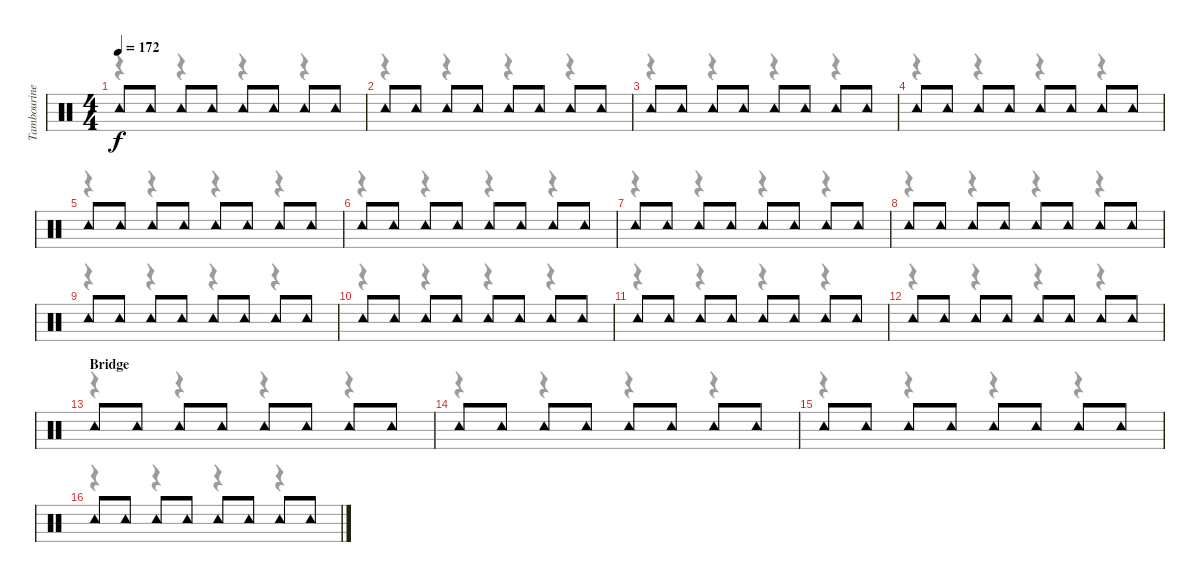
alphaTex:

\track ("Tambourine" "Tambourine") {instrument percussion}
\staff {score}
\articulation defaults
\voice
\ts (4 4)
\tempo 172
\clef neutral
\ks c "Tambourine (hit)".8{dy f} "Tambourine (hit)".8 "Tambourine (hit)".8 "Tambourine (hit)".8 "Tambourine (hit)".8 "Tambourine (hit)".8 "Tambourine (hit)".8 "Tambourine (hit)".8
|
"Tambourine (hit)".8 "Tambourine (hit)".8 "Tambourine (hit)".8 "Tambourine (hit)".8 "Tambourine (hit)".8 "Tambourine (hit)".8 "Tambourine (hit)".8 "Tambourine (hit)".8 |
"Tambourine (hit)".8 "Tambourine (hit)".8 "Tambourine (hit)".8 "Tambourine (hit)".8 "Tambourine (hit)".8 "Tambourine (hit)".8 "Tambourine (hit)".8 "Tambourine (hit)".8 |
"Tambourine (hit)".8 "Tambourine (hit)".8 "Tambourine (hit)".8 "Tambourine (hit)".8 "Tambourine (hit)".8 "Tambourine (hit)".8 "Tambourine (hit)".8 "Tambourine (hit)".8 |
"Tambourine (hit)".8 "Tambourine (hit)".8 "Tambourine (hit)".8 "Tambourine (hit)".8 "Tambourine (hit)".8 "Tambourine (hit)".8 "Tambourine (hit)".8 "Tambourine (hit)".8 |
"Tambourine (hit)".8 "Tambourine (hit)".8 "Tambourine (hit)".8 "Tambourine (hit)".8 "Tambourine (hit)".8 "Tambourine (hit)".8 "Tambourine (hit)".8 "Tambourine (hit)".8 |
"Tambourine (hit)".8 "Tambourine (hit)".8 "Tambourine (hit)".8 "Tambourine (hit)".8 "Tambourine (hit)".8 "Tambourine (hit)".8 "Tambourine (hit)".8 "Tambourine (hit)".8 |
"Tambourine (hit)".8 "Tambourine (hit)".8 "Tambourine (hit)".8 "Tambourine (hit)".8 "Tambourine (hit)".8 "Tambourine (hit)".8 "Tambourine (hit)".8 "Tambourine (hit)".8 |
"Tambourine (hit)".8 "Tambourine (hit)".8 "Tambourine (hit)".8 "Tambourine (hit)".8 "Tambourine (hit)".8 "Tambourine (hit)".8 "Tambourine (hit)".8 "Tambourine (hit)".8 |
"Tambourine (hit)".8 "Tambourine (hit)".8 "Tambourine (hit)".8 "Tambourine (hit)".8 "Tambourine (hit)".8 "Tambourine (hit)".8 "Tambourine (hit)".8 "Tambourine (hit)".8 |
"Tambourine (hit)".8 "Tambourine (hit)".8 "Tambourine (hit)".8 "Tambourine (hit)".8 "Tambourine (hit)".8 "Tambourine (hit)".8 "Tambourine (hit)".8 "Tambourine (hit)".8 |
"Tambourine (hit)".8 "Tambourine (hit)".8 "Tambourine (hit)".8 "Tambourine (hit)".8 "Tambourine (hit)".8 "Tambourine (hit)".8 "Tambourine (hit)".8 "Tambourine (hit)".8 |
\section ("" "Bridge")
"Tambourine (hit)".8 "Tambourine (hit)".8 "Tambourine (hit)".8 "Tambourine (hit)".8 "Tambourine (hit)".8 "Tambourine (hit)".8 "Tambourine (hit)".8 "Tambourine (hit)".8 |
"Tambourine (hit)".8 "Tambourine (hit)".8 "Tambourine (hit)".8 "Tambourine (hit)".8 "Tambourine (hit)".8 "Tambourine (hit)".8 "Tambourine (hit)".8 "Tambourine (hit)".8 |
"Tambourine (hit)".8 "Tambourine (hit)".8 "Tambourine (hit)".8 "Tambourine (hit)".8 "Tambourine (hit)".8 "Tambourine (hit)".8 "Tambourine (hit)".8 "Tambourine (hit)".8 |
"Tambourine (hit)".8 "Tambourine (hit)".8 "Tambourine (hit)".8 "Tambourine (hit)".8 "Tambourine (hit)".8 "Tambourine (hit)".8 "Tambourine (hit)".8 "Tambourine (hit)".8
\voice
\clef neutral
\ottava regular
\simile none
\ks c
r.4{dy f} r.4 r.4 r.4 |
r.4 r.4 r.4 r.4 |
r.4 r.4 r.4 r.4 |
r.4 r.4 r.4 r.4 |
r.4 r.4 r.4 r.4 |
r.4 r.4 r.4 r.4 |
r.4 r.4 r.4 r.4 |
r.4 r.4 r.4 r.4 |
r.4 r.4 r.4 r.4 |
r.4 r.4 r.4 r.4 |
r.4 r.4 r.4 r.4 |
r.4 r.4 r.4 r.4 |
r.4 r.4 r.4 r.4 |
r.4 r.4 r.4 r.4 |
r.4 r.4 r.4 r.4 |
r.4 r.4 r.4 r.4
